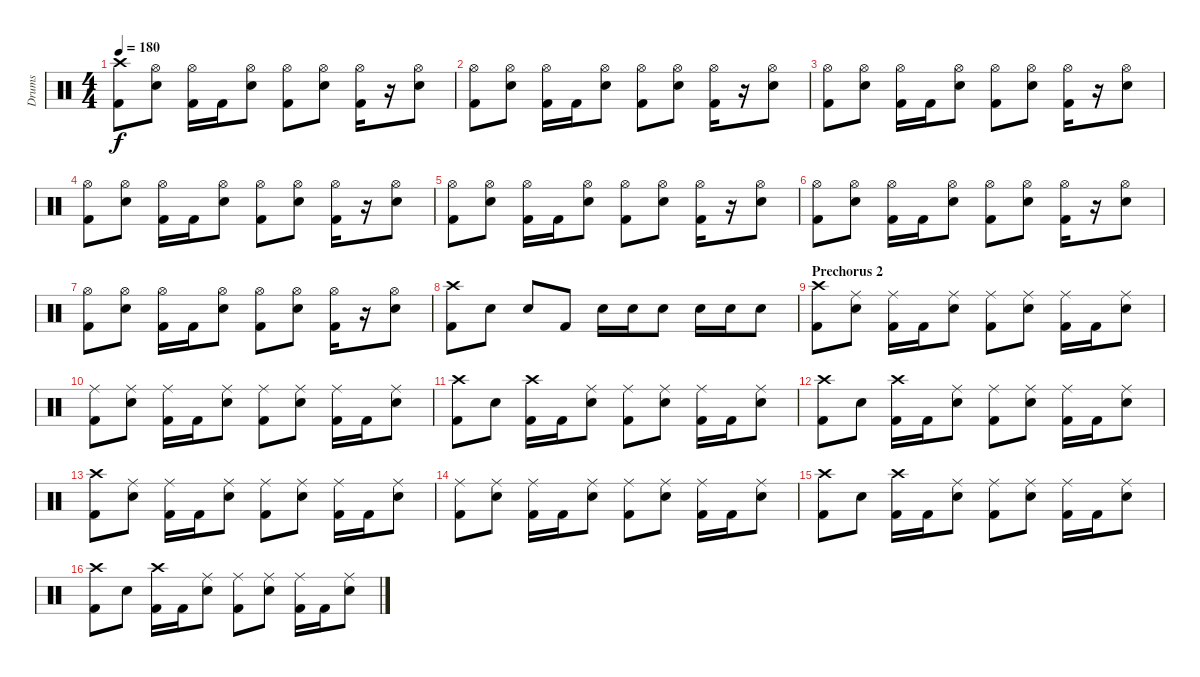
\track ("Drums" "Drums") {instrument percussion}
\staff {score}
\articulation defaults
\ts (4 4)
\tempo 180
\clef neutral
\ks c
("Crash high (hit)" "Kick (hit) 2").8{dy f} ("Hi-Hat (open)" "Snare (hit) 2").8 ("Hi-Hat (open)" "Kick (hit) 2").16 "Kick (hit) 2".16 ("Hi-Hat (open)" "Snare (hit) 2").8 ("Hi-Hat (open)" "Kick (hit) 2").8 ("Hi-Hat (open)" "Snare (hit) 2").8 ("Hi-Hat (open)" "Kick (hit) 2").16 r.16 ("Hi-Hat (open)" "Snare (hit) 2").8 |
("Hi-Hat (open)" "Kick (hit) 2").8 ("Hi-Hat (open)" "Snare (hit) 2").8 ("Hi-Hat (open)" "Kick (hit) 2").16 "Kick (hit) 2".16 ("Hi-Hat (open)" "Snare (hit) 2").8 ("Hi-Hat (open)" "Kick (hit) 2").8 ("Hi-Hat (open)" "Snare (hit) 2").8 ("Hi-Hat (open)" "Kick (hit) 2").16 r.16 ("Hi-Hat (open)" "Snare (hit) 2").8 |
("Hi-Hat (open)" "Kick (hit) 2").8 ("Hi-Hat (open)" "Snare (hit) 2").8 ("Hi-Hat (open)" "Kick (hit) 2").16 "Kick (hit) 2".16 ("Hi-Hat (open)" "Snare (hit) 2").8 ("Hi-Hat (open)" "Kick (hit) 2").8 ("Hi-Hat (open)" "Snare (hit) 2").8 ("Hi-Hat (open)" "Kick (hit) 2").16 r.16 ("Hi-Hat (open)" "Snare (hit) 2").8 |
("Hi-Hat (open)" "Kick (hit) 2").8 ("Hi-Hat (open)" "Snare (hit) 2").8 ("Hi-Hat (open)" "Kick (hit) 2").16 "Kick (hit) 2".16 ("Hi-Hat (open)" "Snare (hit) 2").8 ("Hi-Hat (open)" "Kick (hit) 2").8 ("Hi-Hat (open)" "Snare (hit) 2").8 ("Hi-Hat (open)" "Kick (hit) 2").16 r.16 ("Hi-Hat (open)" "Snare (hit) 2").8 |
("Hi-Hat (open)" "Kick (hit) 2").8 ("Hi-Hat (open)" "Snare (hit) 2").8 ("Hi-Hat (open)" "Kick (hit) 2").16 "Kick (hit) 2".16 ("Hi-Hat (open)" "Snare (hit) 2").8 ("Hi-Hat (open)" "Kick (hit) 2").8 ("Hi-Hat (open)" "Snare (hit) 2").8 ("Hi-Hat (open)" "Kick (hit) 2").16 r.16 ("Hi-Hat (open)" "Snare (hit) 2").8 |
("Hi-Hat (open)" "Kick (hit) 2").8 ("Hi-Hat (open)" "Snare (hit) 2").8 ("Hi-Hat (open)" "Kick (hit) 2").16 "Kick (hit) 2".16 ("Hi-Hat (open)" "Snare (hit) 2").8 ("Hi-Hat (open)" "Kick (hit) 2").8 ("Hi-Hat (open)" "Snare (hit) 2").8 ("Hi-Hat (open)" "Kick (hit) 2").16 r.16 ("Hi-Hat (open)" "Snare (hit) 2").8 |
("Hi-Hat (open)" "Kick (hit) 2").8 ("Hi-Hat (open)" "Snare (hit) 2").8 ("Hi-Hat (open)" "Kick (hit) 2").16 "Kick (hit) 2".16 ("Hi-Hat (open)" "Snare (hit) 2").8 ("Hi-Hat (open)" "Kick (hit) 2").8 ("Hi-Hat (open)" "Snare (hit) 2").8 ("Hi-Hat (open)" "Kick (hit) 2").16 r.16 ("Hi-Hat (open)" "Snare (hit) 2").8 |
("Crash high (hit)" "Kick (hit) 2").8 "Snare (hit) 2".8 "Snare (hit) 2".8 "Kick (hit) 2".8 "Snare (hit) 2".16 "Snare (hit) 2".16 "Snare (hit) 2".8 "Snare (hit) 2".16 "Snare (hit) 2".16 "Snare (hit) 2".8 |
\section ("" "Prechorus 2")
("Crash high (hit)" "Kick (hit) 2").8 ("Ride (middle)" "Snare (hit) 2").8 ("Ride (middle)" "Kick (hit) 2").16 "Kick (hit) 2".16 ("Ride (middle)" "Snare (hit) 2").8 ("Ride (middle)" "Kick (hit) 2").8 ("Ride (middle)" "Snare (hit) 2").8 ("Ride (middle)" "Kick (hit) 2").16 "Kick (hit) 2".16 ("Ride (middle)" "Snare (hit) 2").8 |
("Ride (middle)" "Kick (hit) 2").8 ("Ride (middle)" "Snare (hit) 2").8 ("Ride (middle)" "Kick (hit) 2").16 "Kick (hit) 2".16 ("Ride (middle)" "Snare (hit) 2").8 ("Ride (middle)" "Kick (hit) 2").8 ("Ride (middle)" "Snare (hit) 2").8 ("Ride (middle)" "Kick (hit) 2").16 "Kick (hit) 2".16 ("Ride (middle)" "Snare (hit) 2").8 |
("Crash high (hit)" "Kick (hit) 2").8 "Snare (hit) 2".8 ("Crash high (hit)" "Kick (hit) 2").16 "Kick (hit) 2".16 ("Ride (middle)" "Snare (hit) 2").8 ("Ride (middle)" "Kick (hit) 2").8 ("Ride (middle)" "Snare (hit) 2").8 ("Ride (middle)" "Kick (hit) 2").16 "Kick (hit) 2".16 ("Ride (middle)" "Snare (hit) 2").8 |
("Crash high (hit)" "Kick (hit) 2").8 "Snare (hit) 2".8 ("Crash high (hit)" "Kick (hit) 2").16 "Kick (hit) 2".16 ("Ride (middle)" "Snare (hit) 2").8 ("Ride (middle)" "Kick (hit) 2").8 ("Ride (middle)" "Snare (hit) 2").8 ("Ride (middle)" "Kick (hit) 2").16 "Kick (hit) 2".16 ("Ride (middle)" "Snare (hit) 2").8 |
("Crash high (hit)" "Kick (hit) 2").8 ("Ride (middle)" "Snare (hit) 2").8 ("Ride (middle)" "Kick (hit) 2").16 "Kick (hit) 2".16 ("Ride (middle)" "Snare (hit) 2").8 ("Ride (middle)" "Kick (hit) 2").8 ("Ride (middle)" "Snare (hit) 2").8 ("Ride (middle)" "Kick (hit) 2").16 "Kick (hit) 2".16 ("Ride (middle)" "Snare (hit) 2").8 |
("Ride (middle)" "Kick (hit) 2").8 ("Ride (middle)" "Snare (hit) 2").8 ("Ride (middle)" "Kick (hit) 2").16 "Kick (hit) 2".16 ("Ride (middle)" "Snare (hit) 2").8 ("Ride (middle)" "Kick (hit) 2").8 ("Ride (middle)" "Snare (hit) 2").8 ("Ride (middle)" "Kick (hit) 2").16 "Kick (hit) 2".16 ("Ride (middle)" "Snare (hit) 2").8 |
("Crash high (hit)" "Kick (hit) 2").8 "Snare (hit) 2".8 ("Crash high (hit)" "Kick (hit) 2").16 "Kick (hit) 2".16 ("Ride (middle)" "Snare (hit) 2").8 ("Ride (middle)" "Kick (hit) 2").8 ("Ride (middle)" "Snare (hit) 2").8 ("Ride (middle)" "Kick (hit) 2").16 "Kick (hit) 2".16 ("Ride (middle)" "Snare (hit) 2").8 |
("Crash high (hit)" "Kick (hit) 2").8 "Snare (hit) 2".8 ("Crash high (hit)" "Kick (hit) 2").16 "Kick (hit) 2".16 ("Ride (middle)" "Snare (hit) 2").8 ("Ride (middle)" "Kick (hit) 2").8 ("Ride (middle)" "Snare (hit) 2").8 ("Ride (middle)" "Kick (hit) 2").16 "Kick (hit) 2".16 ("Ride (middle)" "Snare (hit) 2").8
